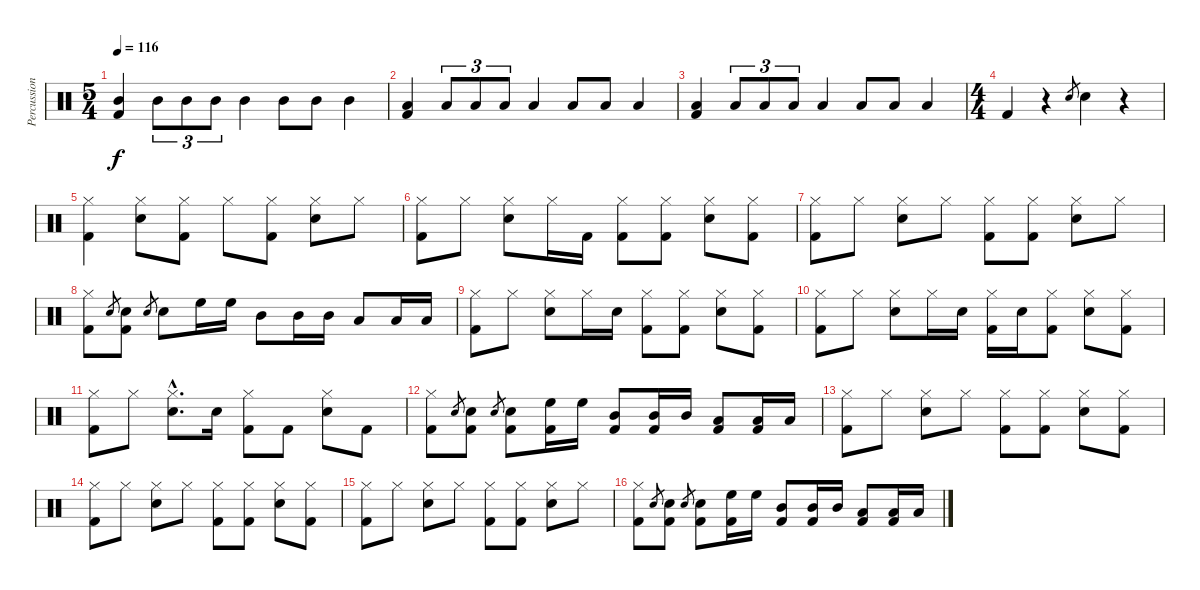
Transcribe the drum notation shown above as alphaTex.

\track ("Percussion" "Percussion") {instrument percussion}
\staff {score}
\articulation defaults
\ts (5 4)
\tempo 116
\clef neutral
\ks c
("Kick (hit) 2" "Mid Tom (hit)").4{dy f} "Mid Tom (hit)".8{tu (3 2)} "Mid Tom (hit)".8{tu (3 2)} "Mid Tom (hit)".8{tu (3 2)} "Mid Tom (hit)".4 "Mid Tom (hit)".8 "Mid Tom (hit)".8 "Mid Tom (hit)".4 |
("Kick (hit) 2" "Low Tom (hit)").4 "Low Tom (hit)".8{tu (3 2)} "Low Tom (hit)".8{tu (3 2)} "Low Tom (hit)".8{tu (3 2)} "Low Tom (hit)".4 "Low Tom (hit)".8 "Low Tom (hit)".8 "Low Tom (hit)".4 |
("Kick (hit) 2" "Low Floor Tom (hit)").4 "Low Floor Tom (hit)".8{tu (3 2)} "Low Floor Tom (hit)".8{tu (3 2)} "Low Floor Tom (hit)".8{tu (3 2)} "Low Floor Tom (hit)".4 "Low Floor Tom (hit)".8 "Low Floor Tom (hit)".8 "Low Floor Tom (hit)".4 |
\ts (4 4)
"Kick (hit) 2".4 r.4 "Snare (hit) 2".8{gr} "Snare (hit) 2".4 r.4 |
("Kick (hit) 2" "Hi-Hat (closed)").4 ("Snare (hit) 2" "Hi-Hat (closed)").8 ("Kick (hit) 2" "Hi-Hat (closed)").8 "Hi-Hat (closed)".8 ("Kick (hit) 2" "Hi-Hat (closed)").8 ("Snare (hit) 2" "Hi-Hat (closed)").8 "Hi-Hat (closed)".8 |
("Kick (hit) 2" "Hi-Hat (closed)").8 "Hi-Hat (closed)".8 ("Snare (hit) 2" "Hi-Hat (closed)").8 "Hi-Hat (closed)".16 "Kick (hit) 2".16 ("Kick (hit) 2" "Hi-Hat (closed)").8 ("Kick (hit) 2" "Hi-Hat (closed)").8 ("Snare (hit) 2" "Hi-Hat (closed)").8 ("Kick (hit) 2" "Hi-Hat (closed)").8 |
("Kick (hit) 2" "Hi-Hat (closed)").8 "Hi-Hat (closed)".8 ("Snare (hit) 2" "Hi-Hat (closed)").8 "Hi-Hat (closed)".8 ("Kick (hit) 2" "Hi-Hat (closed)").8 ("Kick (hit) 2" "Hi-Hat (closed)").8 ("Snare (hit) 2" "Hi-Hat (closed)").8 "Hi-Hat (closed)".8 |
("Kick (hit) 2" "Hi-Hat (closed)").8 "Snare (hit) 2".8{gr} ("Kick (hit) 2" "Snare (hit) 2").8 "Snare (hit) 2".8{gr} "Snare (hit) 2".8 "High Floor Tom (hit)".16 "High Floor Tom (hit)".16 "Mid Tom (hit)".8 "Mid Tom (hit)".16 "Mid Tom (hit)".16 "Low Tom (hit)".8 "Low Tom (hit)".16 "Low Tom (hit)".16 |
("Kick (hit) 2" "Hi-Hat (closed)").8 "Hi-Hat (closed)".8 ("Snare (hit) 2" "Hi-Hat (closed)").8 "Hi-Hat (closed)".16 "Snare (hit) 2".16 ("Kick (hit) 2" "Hi-Hat (closed)").8 ("Kick (hit) 2" "Hi-Hat (closed)").8 ("Snare (hit) 2" "Hi-Hat (closed)").8 ("Kick (hit) 2" "Hi-Hat (closed)").8 |
("Kick (hit) 2" "Hi-Hat (closed)").8 "Hi-Hat (closed)".8 ("Snare (hit) 2" "Hi-Hat (closed)").8 "Hi-Hat (closed)".16 "Snare (hit) 2".16 ("Kick (hit) 2" "Hi-Hat (closed)").16 "Snare (hit) 2".16 ("Kick (hit) 2" "Hi-Hat (closed)").8 ("Snare (hit) 2" "Hi-Hat (closed)").8 ("Kick (hit) 2" "Hi-Hat (closed)").8 |
("Kick (hit) 2" "Hi-Hat (closed)").8 "Hi-Hat (closed)".8 ("Snare (hit) 2"{hac} "Hi-Hat (closed)"{hac}).8{d} "Snare (hit) 2".16 ("Kick (hit) 2" "Hi-Hat (closed)").8 "Kick (hit) 2".8 ("Snare (hit) 2" "Hi-Hat (closed)").8 "Kick (hit) 2".8 |
("Kick (hit) 2" "Hi-Hat (closed)").8 "Snare (hit) 2".8{gr} ("Kick (hit) 2" "Snare (hit) 2").8 "Snare (hit) 2".8{gr} ("Kick (hit) 2" "Snare (hit) 2").8 ("Kick (hit) 2" "High Floor Tom (hit)").16 "High Floor Tom (hit)".16 ("Kick (hit) 2" "Mid Tom (hit)").8 ("Kick (hit) 2" "Mid Tom (hit)").16 "Mid Tom (hit)".16 ("Kick (hit) 2" "Low Tom (hit)").8 ("Kick (hit) 2" "Low Tom (hit)").16 "Low Tom (hit)".16 |
("Kick (hit) 2" "Hi-Hat (closed)").8 "Hi-Hat (closed)".8 ("Snare (hit) 2" "Hi-Hat (closed)").8 "Hi-Hat (closed)".8 ("Kick (hit) 2" "Hi-Hat (closed)").8 ("Kick (hit) 2" "Hi-Hat (closed)").8 ("Snare (hit) 2" "Hi-Hat (closed)").8 ("Kick (hit) 2" "Hi-Hat (closed)").8 |
("Kick (hit) 2" "Hi-Hat (closed)").8 "Hi-Hat (closed)".8 ("Snare (hit) 2" "Hi-Hat (closed)").8 "Hi-Hat (closed)".8 ("Kick (hit) 2" "Hi-Hat (closed)").8 ("Kick (hit) 2" "Hi-Hat (closed)").8 ("Snare (hit) 2" "Hi-Hat (closed)").8 ("Kick (hit) 2" "Hi-Hat (closed)").8 |
("Kick (hit) 2" "Hi-Hat (closed)").8 "Hi-Hat (closed)".8 ("Snare (hit) 2" "Hi-Hat (closed)").8 "Hi-Hat (closed)".8 ("Kick (hit) 2" "Hi-Hat (closed)").8 ("Kick (hit) 2" "Hi-Hat (closed)").8 ("Snare (hit) 2" "Hi-Hat (closed)").8 "Hi-Hat (closed)".8 |
("Kick (hit) 2" "Hi-Hat (closed)").8 "Snare (hit) 2".8{gr} ("Kick (hit) 2" "Snare (hit) 2").8 "Snare (hit) 2".8{gr} ("Kick (hit) 2" "Snare (hit) 2").8 ("Kick (hit) 2" "High Floor Tom (hit)").16 "High Floor Tom (hit)".16 ("Kick (hit) 2" "Mid Tom (hit)").8 ("Kick (hit) 2" "Mid Tom (hit)").16 "Mid Tom (hit)".16 ("Kick (hit) 2" "Low Tom (hit)").8 ("Kick (hit) 2" "Low Tom (hit)").16 "Low Tom (hit)".16
